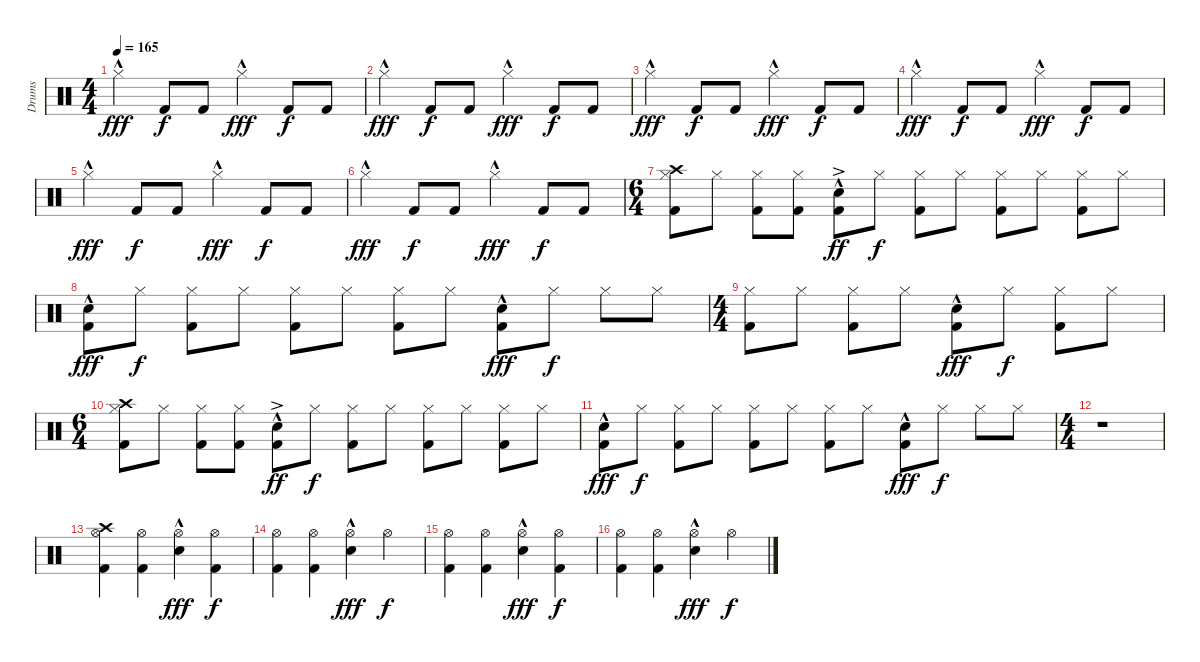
\track ("Drums" "Drums") {instrument percussion}
\staff {score}
\articulation defaults
\ts (4 4)
\tempo 165
\clef neutral
\ks c "Hi-Hat (closed)"{hac}.4{dy fff} "Kick (hit) 2".8{dy f} "Kick (hit) 2".8 "Hi-Hat (closed)"{hac}.4{dy fff} "Kick (hit) 2".8{dy f} "Kick (hit) 2".8
|
"Hi-Hat (closed)"{hac}.4{dy fff} "Kick (hit) 2".8{dy f} "Kick (hit) 2".8 "Hi-Hat (closed)"{hac}.4{dy fff} "Kick (hit) 2".8{dy f} "Kick (hit) 2".8 |
"Hi-Hat (closed)"{hac}.4{dy fff} "Kick (hit) 2".8{dy f} "Kick (hit) 2".8 "Hi-Hat (closed)"{hac}.4{dy fff} "Kick (hit) 2".8{dy f} "Kick (hit) 2".8 |
"Hi-Hat (closed)"{hac}.4{dy fff} "Kick (hit) 2".8{dy f} "Kick (hit) 2".8 "Hi-Hat (closed)"{hac}.4{dy fff} "Kick (hit) 2".8{dy f} "Kick (hit) 2".8 |
"Hi-Hat (closed)"{hac}.4{dy fff} "Kick (hit) 2".8{dy f} "Kick (hit) 2".8 "Hi-Hat (closed)"{hac}.4{dy fff} "Kick (hit) 2".8{dy f} "Kick (hit) 2".8 |
"Hi-Hat (closed)"{hac}.4{dy fff} "Kick (hit) 2".8{dy f} "Kick (hit) 2".8 "Hi-Hat (closed)"{hac}.4{dy fff} "Kick (hit) 2".8{dy f} "Kick (hit) 2".8 |
\ts (6 4)
("Crash high (hit)" "Hi-Hat (closed)" "Kick (hit) 2").8 "Hi-Hat (closed)".8 ("Hi-Hat (closed)" "Kick (hit) 2").8 ("Hi-Hat (closed)" "Kick (hit) 2").8 ("Electric Snare (hit)"{hac} "Kick (hit) 2"{ac}).8{dy ff} "Hi-Hat (closed)".8{dy f} ("Hi-Hat (closed)" "Kick (hit) 2").8 "Hi-Hat (closed)".8 ("Hi-Hat (closed)" "Kick (hit) 2").8 "Hi-Hat (closed)".8 ("Hi-Hat (closed)" "Kick (hit) 2").8 "Hi-Hat (closed)".8 |
("Electric Snare (hit)"{hac} "Kick (hit) 2"{hac}).8{dy fff} "Hi-Hat (closed)".8{dy f} ("Hi-Hat (closed)" "Kick (hit) 2").8 "Hi-Hat (closed)".8 ("Hi-Hat (closed)" "Kick (hit) 2").8 "Hi-Hat (closed)".8 ("Hi-Hat (closed)" "Kick (hit) 2").8 "Hi-Hat (closed)".8 ("Electric Snare (hit)"{hac} "Kick (hit) 2"{hac}).8{dy fff} "Hi-Hat (closed)".8{dy f} "Hi-Hat (closed)".8 "Hi-Hat (closed)".8 |
\ts (4 4)
("Hi-Hat (closed)" "Kick (hit) 2").8 "Hi-Hat (closed)".8 ("Hi-Hat (closed)" "Kick (hit) 2").8 "Hi-Hat (closed)".8 ("Electric Snare (hit)"{hac} "Kick (hit) 2"{hac}).8{dy fff} "Hi-Hat (closed)".8{dy f} ("Hi-Hat (closed)" "Kick (hit) 2").8 "Hi-Hat (closed)".8 |
\ts (6 4)
("Crash high (hit)" "Hi-Hat (closed)" "Kick (hit) 2").8 "Hi-Hat (closed)".8 ("Hi-Hat (closed)" "Kick (hit) 2").8 ("Hi-Hat (closed)" "Kick (hit) 2").8 ("Electric Snare (hit)"{hac} "Kick (hit) 2"{ac}).8{dy ff} "Hi-Hat (closed)".8{dy f} ("Hi-Hat (closed)" "Kick (hit) 2").8 "Hi-Hat (closed)".8 ("Hi-Hat (closed)" "Kick (hit) 2").8 "Hi-Hat (closed)".8 ("Hi-Hat (closed)" "Kick (hit) 2").8 "Hi-Hat (closed)".8 |
("Electric Snare (hit)"{hac} "Kick (hit) 2"{hac}).8{dy fff} "Hi-Hat (closed)".8{dy f} ("Hi-Hat (closed)" "Kick (hit) 2").8 "Hi-Hat (closed)".8 ("Hi-Hat (closed)" "Kick (hit) 2").8 "Hi-Hat (closed)".8 ("Hi-Hat (closed)" "Kick (hit) 2").8 "Hi-Hat (closed)".8 ("Electric Snare (hit)"{hac} "Kick (hit) 2"{hac}).8{dy fff} "Hi-Hat (closed)".8{dy f} "Hi-Hat (closed)".8 "Hi-Hat (closed)".8 |
\ts (4 4)
r.1 |
("Crash high (hit)" "Hi-Hat (open)" "Kick (hit) 2").4 ("Hi-Hat (open)" "Kick (hit) 2").4 ("Hi-Hat (open)" "Electric Snare (hit)"{hac}).4{dy fff} ("Hi-Hat (open)" "Kick (hit) 2").4{dy f} |
("Hi-Hat (open)" "Kick (hit) 2").4 ("Hi-Hat (open)" "Kick (hit) 2").4 ("Hi-Hat (open)" "Electric Snare (hit)"{hac}).4{dy fff} "Hi-Hat (open)".4{dy f} |
("Hi-Hat (open)" "Kick (hit) 2").4 ("Hi-Hat (open)" "Kick (hit) 2").4 ("Hi-Hat (open)" "Electric Snare (hit)"{hac}).4{dy fff} ("Hi-Hat (open)" "Kick (hit) 2").4{dy f} |
("Hi-Hat (open)" "Kick (hit) 2").4 ("Hi-Hat (open)" "Kick (hit) 2").4 ("Hi-Hat (open)" "Electric Snare (hit)"{hac}).4{dy fff} "Hi-Hat (open)".4{dy f}
